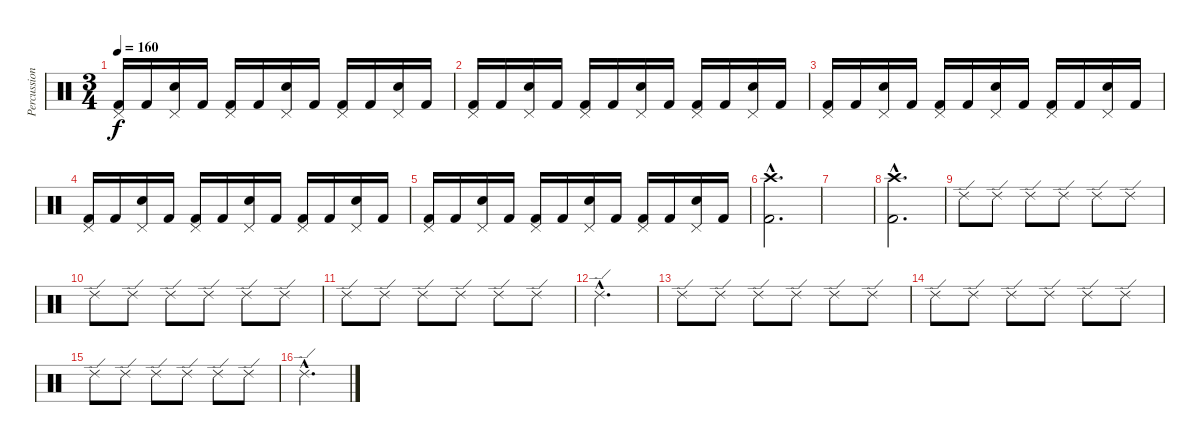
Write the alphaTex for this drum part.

\track ("Percussion" "Percussion") {instrument percussion}
\staff {score}
\articulation defaults
\ts (3 4)
\tempo 160
\clef neutral
\ks c
("Pedal Hi-Hat (hit)" "Kick (hit) 2").16{dy f} "Kick (hit) 2".16 ("Pedal Hi-Hat (hit)" "Snare (hit) 2").16 "Kick (hit) 2".16 ("Pedal Hi-Hat (hit)" "Kick (hit) 2").16 "Kick (hit) 2".16 ("Pedal Hi-Hat (hit)" "Snare (hit) 2").16 "Kick (hit) 2".16 ("Pedal Hi-Hat (hit)" "Kick (hit) 2").16 "Kick (hit) 2".16 ("Pedal Hi-Hat (hit)" "Snare (hit) 2").16 "Kick (hit) 2".16 |
("Pedal Hi-Hat (hit)" "Kick (hit) 2").16 "Kick (hit) 2".16 ("Pedal Hi-Hat (hit)" "Snare (hit) 2").16 "Kick (hit) 2".16 ("Pedal Hi-Hat (hit)" "Kick (hit) 2").16 "Kick (hit) 2".16 ("Pedal Hi-Hat (hit)" "Snare (hit) 2").16 "Kick (hit) 2".16 ("Pedal Hi-Hat (hit)" "Kick (hit) 2").16 "Kick (hit) 2".16 ("Pedal Hi-Hat (hit)" "Snare (hit) 2").16 "Kick (hit) 2".16 |
("Pedal Hi-Hat (hit)" "Kick (hit) 2").16 "Kick (hit) 2".16 ("Pedal Hi-Hat (hit)" "Snare (hit) 2").16 "Kick (hit) 2".16 ("Pedal Hi-Hat (hit)" "Kick (hit) 2").16 "Kick (hit) 2".16 ("Pedal Hi-Hat (hit)" "Snare (hit) 2").16 "Kick (hit) 2".16 ("Pedal Hi-Hat (hit)" "Kick (hit) 2").16 "Kick (hit) 2".16 ("Pedal Hi-Hat (hit)" "Snare (hit) 2").16 "Kick (hit) 2".16 |
("Pedal Hi-Hat (hit)" "Kick (hit) 2").16 "Kick (hit) 2".16 ("Pedal Hi-Hat (hit)" "Snare (hit) 2").16 "Kick (hit) 2".16 ("Pedal Hi-Hat (hit)" "Kick (hit) 2").16 "Kick (hit) 2".16 ("Pedal Hi-Hat (hit)" "Snare (hit) 2").16 "Kick (hit) 2".16 ("Pedal Hi-Hat (hit)" "Kick (hit) 2").16 "Kick (hit) 2".16 ("Pedal Hi-Hat (hit)" "Snare (hit) 2").16 "Kick (hit) 2".16 |
("Pedal Hi-Hat (hit)" "Kick (hit) 2").16 "Kick (hit) 2".16 ("Pedal Hi-Hat (hit)" "Snare (hit) 2").16 "Kick (hit) 2".16 ("Pedal Hi-Hat (hit)" "Kick (hit) 2").16 "Kick (hit) 2".16 ("Pedal Hi-Hat (hit)" "Snare (hit) 2").16 "Kick (hit) 2".16 ("Pedal Hi-Hat (hit)" "Kick (hit) 2").16 "Kick (hit) 2".16 ("Pedal Hi-Hat (hit)" "Snare (hit) 2").16 "Kick (hit) 2".16 |
("Crash high (hit)"{hac} "Kick (hit) 2"{hac}).2{d} |
|
("Crash high (hit)"{hac} "Kick (hit) 2"{hac}).2{d} |
"Ride (edge) 2".8 "Ride (edge) 2".8 "Ride (edge) 2".8 "Ride (edge) 2".8 "Ride (edge) 2".8 "Ride (edge) 2".8 |
"Ride (edge) 2".8 "Ride (edge) 2".8 "Ride (edge) 2".8 "Ride (edge) 2".8 "Ride (edge) 2".8 "Ride (edge) 2".8 |
"Ride (edge) 2".8 "Ride (edge) 2".8 "Ride (edge) 2".8 "Ride (edge) 2".8 "Ride (edge) 2".8 "Ride (edge) 2".8 |
"Ride (edge) 2"{hac}.2{d} |
"Ride (edge) 2".8 "Ride (edge) 2".8 "Ride (edge) 2".8 "Ride (edge) 2".8 "Ride (edge) 2".8 "Ride (edge) 2".8 |
"Ride (edge) 2".8 "Ride (edge) 2".8 "Ride (edge) 2".8 "Ride (edge) 2".8 "Ride (edge) 2".8 "Ride (edge) 2".8 |
"Ride (edge) 2".8 "Ride (edge) 2".8 "Ride (edge) 2".8 "Ride (edge) 2".8 "Ride (edge) 2".8 "Ride (edge) 2".8 |
"Ride (edge) 2"{hac}.2{d}
